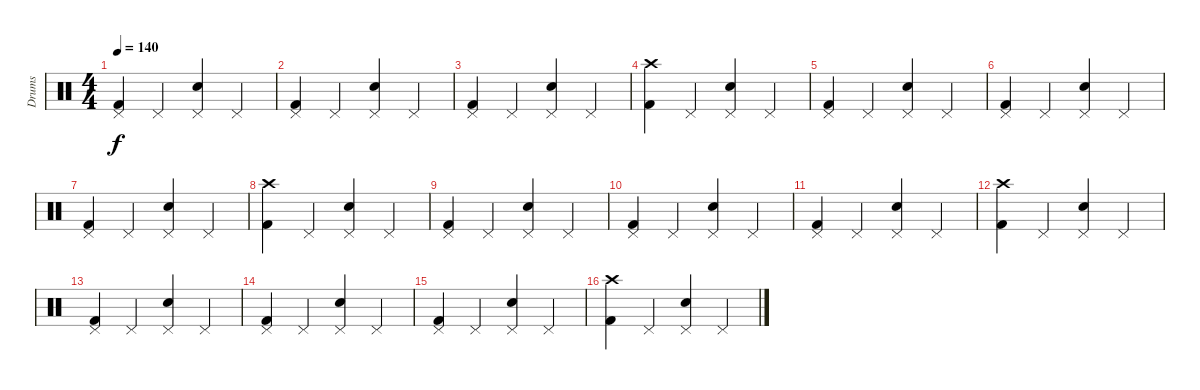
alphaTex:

\track ("Drums" "Drums") {instrument percussion}
\staff {score}
\articulation defaults
\ts (4 4)
\tempo 140
\clef neutral
\ks c
("Pedal Hi-Hat (hit)" "Kick (hit) 2").4{dy f} "Pedal Hi-Hat (hit)".4 ("Pedal Hi-Hat (hit)" "Snare (hit) 2").4 "Pedal Hi-Hat (hit)".4 |
("Pedal Hi-Hat (hit)" "Kick (hit) 2").4 "Pedal Hi-Hat (hit)".4 ("Pedal Hi-Hat (hit)" "Snare (hit) 2").4 "Pedal Hi-Hat (hit)".4 |
("Pedal Hi-Hat (hit)" "Kick (hit) 2").4 "Pedal Hi-Hat (hit)".4 ("Pedal Hi-Hat (hit)" "Snare (hit) 2").4 "Pedal Hi-Hat (hit)".4 |
("Crash high (hit)" "Kick (hit) 2").4 "Pedal Hi-Hat (hit)".4 ("Pedal Hi-Hat (hit)" "Snare (hit) 2").4 "Pedal Hi-Hat (hit)".4 |
("Pedal Hi-Hat (hit)" "Kick (hit) 2").4 "Pedal Hi-Hat (hit)".4 ("Pedal Hi-Hat (hit)" "Snare (hit) 2").4 "Pedal Hi-Hat (hit)".4 |
("Pedal Hi-Hat (hit)" "Kick (hit) 2").4 "Pedal Hi-Hat (hit)".4 ("Pedal Hi-Hat (hit)" "Snare (hit) 2").4 "Pedal Hi-Hat (hit)".4 |
("Pedal Hi-Hat (hit)" "Kick (hit) 2").4 "Pedal Hi-Hat (hit)".4 ("Pedal Hi-Hat (hit)" "Snare (hit) 2").4 "Pedal Hi-Hat (hit)".4 |
("Crash high (hit)" "Kick (hit) 2").4 "Pedal Hi-Hat (hit)".4 ("Pedal Hi-Hat (hit)" "Snare (hit) 2").4 "Pedal Hi-Hat (hit)".4 |
("Pedal Hi-Hat (hit)" "Kick (hit) 2").4 "Pedal Hi-Hat (hit)".4 ("Pedal Hi-Hat (hit)" "Snare (hit) 2").4 "Pedal Hi-Hat (hit)".4 |
("Pedal Hi-Hat (hit)" "Kick (hit) 2").4 "Pedal Hi-Hat (hit)".4 ("Pedal Hi-Hat (hit)" "Snare (hit) 2").4 "Pedal Hi-Hat (hit)".4 |
("Pedal Hi-Hat (hit)" "Kick (hit) 2").4 "Pedal Hi-Hat (hit)".4 ("Pedal Hi-Hat (hit)" "Snare (hit) 2").4 "Pedal Hi-Hat (hit)".4 |
("Crash high (hit)" "Kick (hit) 2").4 "Pedal Hi-Hat (hit)".4 ("Pedal Hi-Hat (hit)" "Snare (hit) 2").4 "Pedal Hi-Hat (hit)".4 |
("Pedal Hi-Hat (hit)" "Kick (hit) 2").4 "Pedal Hi-Hat (hit)".4 ("Pedal Hi-Hat (hit)" "Snare (hit) 2").4 "Pedal Hi-Hat (hit)".4 |
("Pedal Hi-Hat (hit)" "Kick (hit) 2").4 "Pedal Hi-Hat (hit)".4 ("Pedal Hi-Hat (hit)" "Snare (hit) 2").4 "Pedal Hi-Hat (hit)".4 |
("Pedal Hi-Hat (hit)" "Kick (hit) 2").4 "Pedal Hi-Hat (hit)".4 ("Pedal Hi-Hat (hit)" "Snare (hit) 2").4 "Pedal Hi-Hat (hit)".4 |
("Crash high (hit)" "Kick (hit) 2").4 "Pedal Hi-Hat (hit)".4 ("Pedal Hi-Hat (hit)" "Snare (hit) 2").4 "Pedal Hi-Hat (hit)".4
